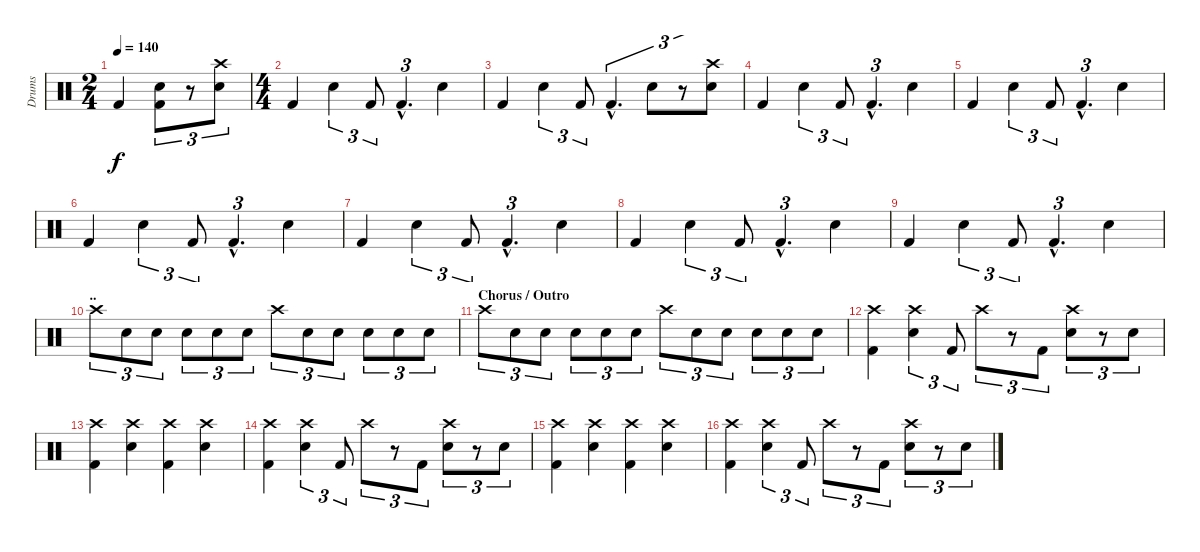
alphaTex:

\track ("Drums" "Drums") {instrument percussion}
\staff {score}
\articulation defaults
\ts (2 4)
\tempo 140
\clef neutral
\ks c "Kick (hit) 2".4{dy f}
("Snare (hit) 2" "Kick (hit) 2").8{tu (3 2)} r.8{tu (3 2)} ("Crash high (hit)" "Snare (hit) 2").8{tu (3 2)} |
\ts (4 4)
"Kick (hit) 2".4 "Snare (hit) 2".4{tu (3 2)} "Kick (hit) 2".8{tu (3 2)} "Kick (hit) 2"{hac}.4{d tu (3 2)} "Snare (hit) 2".4 |
"Kick (hit) 2".4 "Snare (hit) 2".4{tu (3 2)} "Kick (hit) 2".8{tu (3 2)} "Kick (hit) 2"{hac}.4{d tu (3 2)} "Snare (hit) 2".8{tu (3 2)} r.8{tu (3 2)} ("Crash high (hit)" "Snare (hit) 2").8{tu (3 2)} |
"Kick (hit) 2".4 "Snare (hit) 2".4{tu (3 2)} "Kick (hit) 2".8{tu (3 2)} "Kick (hit) 2"{hac}.4{d tu (3 2)} "Snare (hit) 2".4 |
"Kick (hit) 2".4 "Snare (hit) 2".4{tu (3 2)} "Kick (hit) 2".8{tu (3 2)} "Kick (hit) 2"{hac}.4{d tu (3 2)} "Snare (hit) 2".4 |
"Kick (hit) 2".4 "Snare (hit) 2".4{tu (3 2)} "Kick (hit) 2".8{tu (3 2)} "Kick (hit) 2"{hac}.4{d tu (3 2)} "Snare (hit) 2".4 |
"Kick (hit) 2".4 "Snare (hit) 2".4{tu (3 2)} "Kick (hit) 2".8{tu (3 2)} "Kick (hit) 2"{hac}.4{d tu (3 2)} "Snare (hit) 2".4 |
"Kick (hit) 2".4 "Snare (hit) 2".4{tu (3 2)} "Kick (hit) 2".8{tu (3 2)} "Kick (hit) 2"{hac}.4{d tu (3 2)} "Snare (hit) 2".4 |
"Kick (hit) 2".4 "Snare (hit) 2".4{tu (3 2)} "Kick (hit) 2".8{tu (3 2)} "Kick (hit) 2"{hac}.4{d tu (3 2)} "Snare (hit) 2".4 |
\section ("" "..")
"Crash high (hit)".8{tu (3 2)} "Snare (hit) 2".8{tu (3 2)} "Snare (hit) 2".8{tu (3 2)} "Snare (hit) 2".8{tu (3 2)} "Snare (hit) 2".8{tu (3 2)} "Snare (hit) 2".8{tu (3 2)} "Crash high (hit)".8{tu (3 2)} "Snare (hit) 2".8{tu (3 2)} "Snare (hit) 2".8{tu (3 2)} "Snare (hit) 2".8{tu (3 2)} "Snare (hit) 2".8{tu (3 2)} "Snare (hit) 2".8{tu (3 2)} |
\section ("" "Chorus / Outro")
"Crash high (hit)".8{tu (3 2)} "Snare (hit) 2".8{tu (3 2)} "Snare (hit) 2".8{tu (3 2)} "Snare (hit) 2".8{tu (3 2)} "Snare (hit) 2".8{tu (3 2)} "Snare (hit) 2".8{tu (3 2)} "Crash high (hit)".8{tu (3 2)} "Snare (hit) 2".8{tu (3 2)} "Snare (hit) 2".8{tu (3 2)} "Snare (hit) 2".8{tu (3 2)} "Snare (hit) 2".8{tu (3 2)} "Snare (hit) 2".8{tu (3 2)} |
("Crash high (hit)" "Kick (hit) 2").4 ("Crash high (hit)" "Snare (hit) 2").4{tu (3 2)} "Kick (hit) 2".8{tu (3 2)} "Crash high (hit)".8{tu (3 2)} r.8{tu (3 2)} "Kick (hit) 2".8{tu (3 2)} ("Crash high (hit)" "Snare (hit) 2").8{tu (3 2)} r.8{tu (3 2)} "Snare (hit) 2".8{tu (3 2)} |
("Crash high (hit)" "Kick (hit) 2").4 ("Crash high (hit)" "Snare (hit) 2").4 ("Crash high (hit)" "Kick (hit) 2").4 ("Crash high (hit)" "Snare (hit) 2").4 |
("Crash high (hit)" "Kick (hit) 2").4 ("Crash high (hit)" "Snare (hit) 2").4{tu (3 2)} "Kick (hit) 2".8{tu (3 2)} "Crash high (hit)".8{tu (3 2)} r.8{tu (3 2)} "Kick (hit) 2".8{tu (3 2)} ("Crash high (hit)" "Snare (hit) 2").8{tu (3 2)} r.8{tu (3 2)} "Snare (hit) 2".8{tu (3 2)} |
("Crash high (hit)" "Kick (hit) 2").4 ("Crash high (hit)" "Snare (hit) 2").4 ("Crash high (hit)" "Kick (hit) 2").4 ("Crash high (hit)" "Snare (hit) 2").4 |
("Crash high (hit)" "Kick (hit) 2").4 ("Crash high (hit)" "Snare (hit) 2").4{tu (3 2)} "Kick (hit) 2".8{tu (3 2)} "Crash high (hit)".8{tu (3 2)} r.8{tu (3 2)} "Kick (hit) 2".8{tu (3 2)} ("Crash high (hit)" "Snare (hit) 2").8{tu (3 2)} r.8{tu (3 2)} "Snare (hit) 2".8{tu (3 2)}
